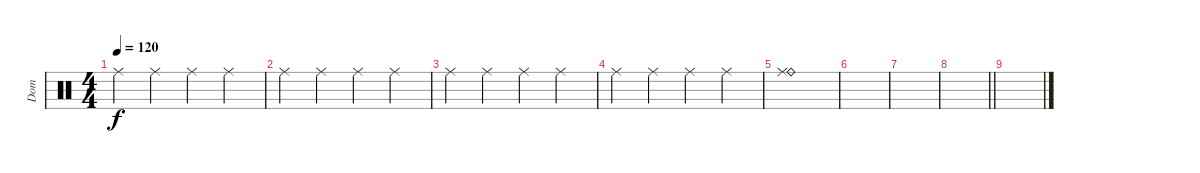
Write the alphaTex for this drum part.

\track ("Dom" "Dom") {instrument percussion}
\staff {score}
\articulation defaults
\ts (4 4)
\tempo 120
\clef neutral
\ks c "Ride (middle)".4{dy f} "Ride (middle)".4 "Ride (middle)".4 "Ride (middle)".4
|
"Ride (middle)".4 "Ride (middle)".4 "Ride (middle)".4 "Ride (middle)".4 |
"Ride (middle)".4 "Ride (middle)".4 "Ride (middle)".4 "Ride (middle)".4 |
"Ride (middle)".4 "Ride (middle)".4 "Ride (middle)".4 "Ride (middle)".4 |
("Ride (bell)" "Ride (middle)").1 |
|
|
\barLineRight lightlight
|
\section ("" "")
